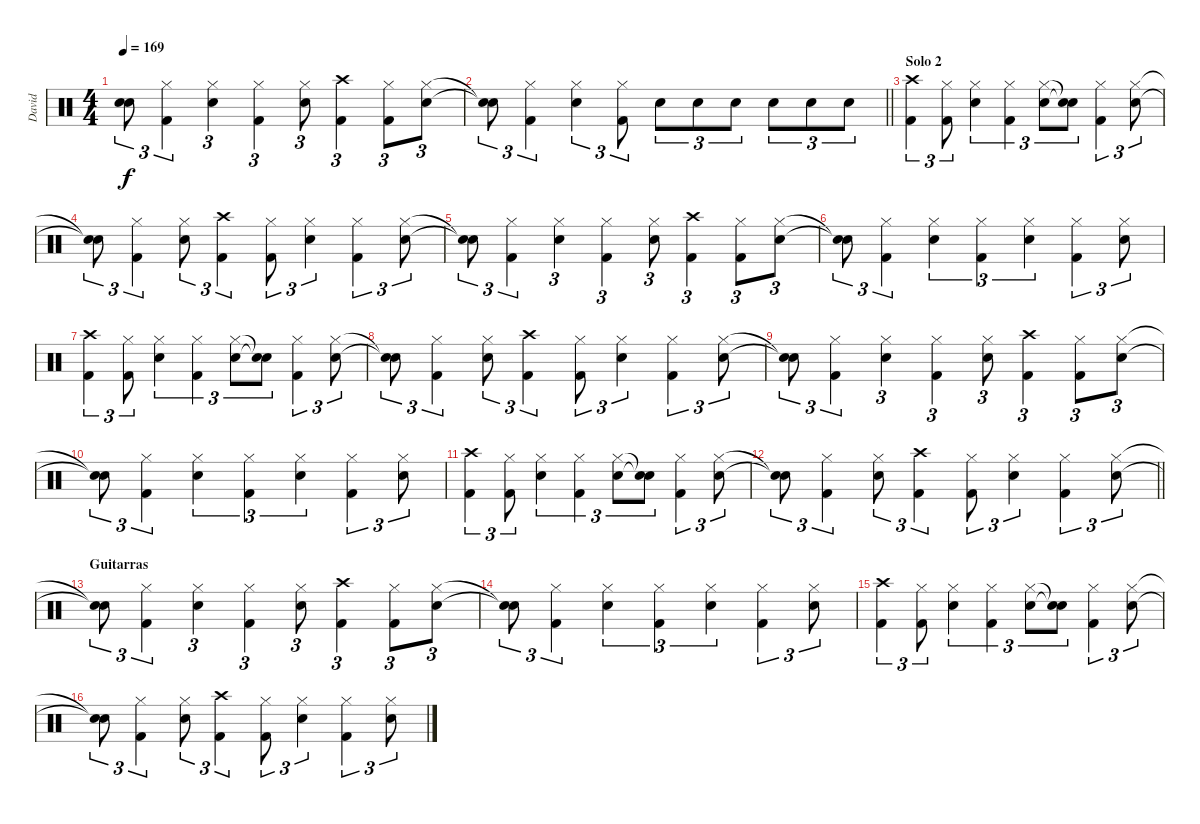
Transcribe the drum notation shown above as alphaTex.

\track ("David" "David") {instrument percussion}
\staff {score}
\articulation defaults
\ts (4 4)
\tempo 169
\clef neutral
\ks c
("Snare (hit)"{t} "Snare (hit)"{t}).8{tu (3 2) dy f} ("Hi-Hat (closed)" "Kick (hit) 2").4{tu (3 2)} ("Hi-Hat (closed)" "Snare (hit) 2").4{tu (3 2)} ("Hi-Hat (closed)" "Kick (hit) 2").4{tu (3 2)} ("Hi-Hat (closed)" "Snare (hit) 2").8{tu (3 2)} ("Crash high (hit)" "Kick (hit) 2").4{tu (3 2)} ("Hi-Hat (closed)" "Kick (hit) 2").8{tu (3 2)} ("Hi-Hat (closed)" "Snare (hit) 2").8{tu (3 2)} |
\barLineRight lightlight
("Snare (hit)"{t} "Snare (hit)"{t}).8{tu (3 2)} ("Hi-Hat (closed)" "Kick (hit) 2").4{tu (3 2)} ("Hi-Hat (closed)" "Snare (hit) 2").4{tu (3 2)} ("Hi-Hat (closed)" "Kick (hit) 2").8{tu (3 2)} "Snare (hit) 2".8{tu (3 2)} "Snare (hit) 2".8{tu (3 2)} "Snare (hit) 2".8{tu (3 2)} "Snare (hit) 2".8{tu (3 2)} "Snare (hit) 2".8{tu (3 2)} "Snare (hit) 2".8{tu (3 2)} |
\section ("" "Solo 2")
("Crash high (hit)" "Kick (hit) 2").4{tu (3 2)} ("Hi-Hat (closed)" "Kick (hit) 2").8{tu (3 2)} ("Hi-Hat (closed)" "Snare (hit) 2").4{tu (3 2)} ("Hi-Hat (closed)" "Kick (hit) 2").4{tu (3 2)} ("Hi-Hat (closed)" "Snare (hit) 2").8{tu (3 2)} ("Snare (hit)"{t} "Snare (hit)"{t}).8{tu (3 2)} ("Hi-Hat (closed)" "Kick (hit) 2").4{tu (3 2)} ("Hi-Hat (closed)" "Snare (hit) 2").8{tu (3 2)} |
("Snare (hit)"{t} "Snare (hit)"{t}).8{tu (3 2)} ("Hi-Hat (closed)" "Kick (hit) 2").4{tu (3 2)} ("Hi-Hat (closed)" "Snare (hit) 2").8{tu (3 2)} ("Crash high (hit)" "Kick (hit) 2").4{tu (3 2)} ("Hi-Hat (closed)" "Kick (hit) 2").8{tu (3 2)} ("Hi-Hat (closed)" "Snare (hit) 2").4{tu (3 2)} ("Hi-Hat (closed)" "Kick (hit) 2").4{tu (3 2)} ("Hi-Hat (closed)" "Snare (hit) 2").8{tu (3 2)} |
("Snare (hit)"{t} "Snare (hit)"{t}).8{tu (3 2)} ("Hi-Hat (closed)" "Kick (hit) 2").4{tu (3 2)} ("Hi-Hat (closed)" "Snare (hit) 2").4{tu (3 2)} ("Hi-Hat (closed)" "Kick (hit) 2").4{tu (3 2)} ("Hi-Hat (closed)" "Snare (hit) 2").8{tu (3 2)} ("Crash high (hit)" "Kick (hit) 2").4{tu (3 2)} ("Hi-Hat (closed)" "Kick (hit) 2").8{tu (3 2)} ("Hi-Hat (closed)" "Snare (hit) 2").8{tu (3 2)} |
("Snare (hit)"{t} "Snare (hit)"{t}).8{tu (3 2)} ("Hi-Hat (closed)" "Kick (hit) 2").4{tu (3 2)} ("Hi-Hat (closed)" "Snare (hit) 2").4{tu (3 2)} ("Hi-Hat (closed)" "Kick (hit) 2").4{tu (3 2)} ("Hi-Hat (closed)" "Snare (hit) 2").4{tu (3 2)} ("Hi-Hat (closed)" "Kick (hit) 2").4{tu (3 2)} ("Hi-Hat (closed)" "Snare (hit) 2").8{tu (3 2)} |
("Crash high (hit)" "Kick (hit) 2").4{tu (3 2)} ("Hi-Hat (closed)" "Kick (hit) 2").8{tu (3 2)} ("Hi-Hat (closed)" "Snare (hit) 2").4{tu (3 2)} ("Hi-Hat (closed)" "Kick (hit) 2").4{tu (3 2)} ("Hi-Hat (closed)" "Snare (hit) 2").8{tu (3 2)} ("Snare (hit)"{t} "Snare (hit)"{t}).8{tu (3 2)} ("Hi-Hat (closed)" "Kick (hit) 2").4{tu (3 2)} ("Hi-Hat (closed)" "Snare (hit) 2").8{tu (3 2)} |
("Snare (hit)"{t} "Snare (hit)"{t}).8{tu (3 2)} ("Hi-Hat (closed)" "Kick (hit) 2").4{tu (3 2)} ("Hi-Hat (closed)" "Snare (hit) 2").8{tu (3 2)} ("Crash high (hit)" "Kick (hit) 2").4{tu (3 2)} ("Hi-Hat (closed)" "Kick (hit) 2").8{tu (3 2)} ("Hi-Hat (closed)" "Snare (hit) 2").4{tu (3 2)} ("Hi-Hat (closed)" "Kick (hit) 2").4{tu (3 2)} ("Hi-Hat (closed)" "Snare (hit) 2").8{tu (3 2)} |
("Snare (hit)"{t} "Snare (hit)"{t}).8{tu (3 2)} ("Hi-Hat (closed)" "Kick (hit) 2").4{tu (3 2)} ("Hi-Hat (closed)" "Snare (hit) 2").4{tu (3 2)} ("Hi-Hat (closed)" "Kick (hit) 2").4{tu (3 2)} ("Hi-Hat (closed)" "Snare (hit) 2").8{tu (3 2)} ("Crash high (hit)" "Kick (hit) 2").4{tu (3 2)} ("Hi-Hat (closed)" "Kick (hit) 2").8{tu (3 2)} ("Hi-Hat (closed)" "Snare (hit) 2").8{tu (3 2)} |
("Snare (hit)"{t} "Snare (hit)"{t}).8{tu (3 2)} ("Hi-Hat (closed)" "Kick (hit) 2").4{tu (3 2)} ("Hi-Hat (closed)" "Snare (hit) 2").4{tu (3 2)} ("Hi-Hat (closed)" "Kick (hit) 2").4{tu (3 2)} ("Hi-Hat (closed)" "Snare (hit) 2").4{tu (3 2)} ("Hi-Hat (closed)" "Kick (hit) 2").4{tu (3 2)} ("Hi-Hat (closed)" "Snare (hit) 2").8{tu (3 2)} |
("Crash high (hit)" "Kick (hit) 2").4{tu (3 2)} ("Hi-Hat (closed)" "Kick (hit) 2").8{tu (3 2)} ("Hi-Hat (closed)" "Snare (hit) 2").4{tu (3 2)} ("Hi-Hat (closed)" "Kick (hit) 2").4{tu (3 2)} ("Hi-Hat (closed)" "Snare (hit) 2").8{tu (3 2)} ("Snare (hit)"{t} "Snare (hit)"{t}).8{tu (3 2)} ("Hi-Hat (closed)" "Kick (hit) 2").4{tu (3 2)} ("Hi-Hat (closed)" "Snare (hit) 2").8{tu (3 2)} |
\barLineRight lightlight
("Snare (hit)"{t} "Snare (hit)"{t}).8{tu (3 2)} ("Hi-Hat (closed)" "Kick (hit) 2").4{tu (3 2)} ("Hi-Hat (closed)" "Snare (hit) 2").8{tu (3 2)} ("Crash high (hit)" "Kick (hit) 2").4{tu (3 2)} ("Hi-Hat (closed)" "Kick (hit) 2").8{tu (3 2)} ("Hi-Hat (closed)" "Snare (hit) 2").4{tu (3 2)} ("Hi-Hat (closed)" "Kick (hit) 2").4{tu (3 2)} ("Hi-Hat (closed)" "Snare (hit) 2").8{tu (3 2)} |
\section ("" "Guitarras")
("Snare (hit)"{t} "Snare (hit)"{t}).8{tu (3 2)} ("Hi-Hat (closed)" "Kick (hit) 2").4{tu (3 2)} ("Hi-Hat (closed)" "Snare (hit) 2").4{tu (3 2)} ("Hi-Hat (closed)" "Kick (hit) 2").4{tu (3 2)} ("Hi-Hat (closed)" "Snare (hit) 2").8{tu (3 2)} ("Crash high (hit)" "Kick (hit) 2").4{tu (3 2)} ("Hi-Hat (closed)" "Kick (hit) 2").8{tu (3 2)} ("Hi-Hat (closed)" "Snare (hit) 2").8{tu (3 2)} |
("Snare (hit)"{t} "Snare (hit)"{t}).8{tu (3 2)} ("Hi-Hat (closed)" "Kick (hit) 2").4{tu (3 2)} ("Hi-Hat (closed)" "Snare (hit) 2").4{tu (3 2)} ("Hi-Hat (closed)" "Kick (hit) 2").4{tu (3 2)} ("Hi-Hat (closed)" "Snare (hit) 2").4{tu (3 2)} ("Hi-Hat (closed)" "Kick (hit) 2").4{tu (3 2)} ("Hi-Hat (closed)" "Snare (hit) 2").8{tu (3 2)} |
("Crash high (hit)" "Kick (hit) 2").4{tu (3 2)} ("Hi-Hat (closed)" "Kick (hit) 2").8{tu (3 2)} ("Hi-Hat (closed)" "Snare (hit) 2").4{tu (3 2)} ("Hi-Hat (closed)" "Kick (hit) 2").4{tu (3 2)} ("Hi-Hat (closed)" "Snare (hit) 2").8{tu (3 2)} ("Snare (hit)"{t} "Snare (hit)"{t}).8{tu (3 2)} ("Hi-Hat (closed)" "Kick (hit) 2").4{tu (3 2)} ("Hi-Hat (closed)" "Snare (hit) 2").8{tu (3 2)} |
("Snare (hit)"{t} "Snare (hit)"{t}).8{tu (3 2)} ("Hi-Hat (closed)" "Kick (hit) 2").4{tu (3 2)} ("Hi-Hat (closed)" "Snare (hit) 2").8{tu (3 2)} ("Crash high (hit)" "Kick (hit) 2").4{tu (3 2)} ("Hi-Hat (closed)" "Kick (hit) 2").8{tu (3 2)} ("Hi-Hat (closed)" "Snare (hit) 2").4{tu (3 2)} ("Hi-Hat (closed)" "Kick (hit) 2").4{tu (3 2)} ("Hi-Hat (closed)" "Snare (hit) 2").8{tu (3 2)}
